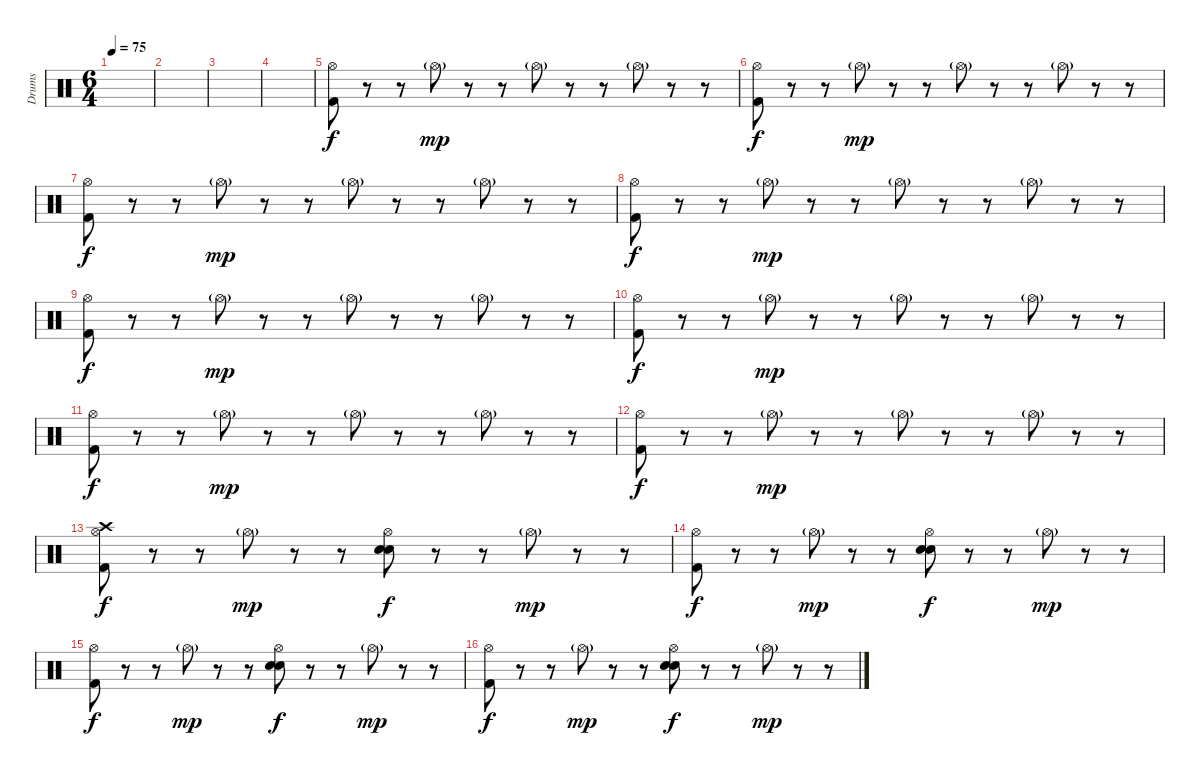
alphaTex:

\track ("Drums" "Drums") {instrument percussion}
\staff {score}
\articulation defaults
\ts (6 4)
\tempo 75
\clef neutral
\ks c
|
|
|
|
("Hi-Hat (open)" "Kick (hit) 2").8 r.8 r.8 "Hi-Hat (open)"{g}.8{dy mp} r.8 r.8 "Hi-Hat (open)"{g}.8 r.8 r.8 "Hi-Hat (open)"{g}.8 r.8 r.8 |
("Hi-Hat (open)" "Kick (hit) 2").8{dy f} r.8 r.8 "Hi-Hat (open)"{g}.8{dy mp} r.8 r.8 "Hi-Hat (open)"{g}.8 r.8 r.8 "Hi-Hat (open)"{g}.8 r.8 r.8 |
("Hi-Hat (open)" "Kick (hit) 2").8{dy f} r.8 r.8 "Hi-Hat (open)"{g}.8{dy mp} r.8 r.8 "Hi-Hat (open)"{g}.8 r.8 r.8 "Hi-Hat (open)"{g}.8 r.8 r.8 |
("Hi-Hat (open)" "Kick (hit) 2").8{dy f} r.8 r.8 "Hi-Hat (open)"{g}.8{dy mp} r.8 r.8 "Hi-Hat (open)"{g}.8 r.8 r.8 "Hi-Hat (open)"{g}.8 r.8 r.8 |
("Hi-Hat (open)" "Kick (hit) 2").8{dy f} r.8 r.8 "Hi-Hat (open)"{g}.8{dy mp} r.8 r.8 "Hi-Hat (open)"{g}.8 r.8 r.8 "Hi-Hat (open)"{g}.8 r.8 r.8 |
("Hi-Hat (open)" "Kick (hit) 2").8{dy f} r.8 r.8 "Hi-Hat (open)"{g}.8{dy mp} r.8 r.8 "Hi-Hat (open)"{g}.8 r.8 r.8 "Hi-Hat (open)"{g}.8 r.8 r.8 |
("Hi-Hat (open)" "Kick (hit) 2").8{dy f} r.8 r.8 "Hi-Hat (open)"{g}.8{dy mp} r.8 r.8 "Hi-Hat (open)"{g}.8 r.8 r.8 "Hi-Hat (open)"{g}.8 r.8 r.8 |
("Hi-Hat (open)" "Kick (hit) 2").8{dy f} r.8 r.8 "Hi-Hat (open)"{g}.8{dy mp} r.8 r.8 "Hi-Hat (open)"{g}.8 r.8 r.8 "Hi-Hat (open)"{g}.8 r.8 r.8 |
("Hi-Hat (open)" "Crash high (hit)" "Kick (hit) 2").8{dy f} r.8 r.8 "Hi-Hat (open)"{g}.8{dy mp} r.8 r.8 ("Hi-Hat (open)" "Electric Snare (hit)" "Snare (hit) 2").8{dy f} r.8 r.8 "Hi-Hat (open)"{g}.8{dy mp} r.8 r.8 |
("Hi-Hat (open)" "Kick (hit) 2").8{dy f} r.8 r.8 "Hi-Hat (open)"{g}.8{dy mp} r.8 r.8 ("Hi-Hat (open)" "Electric Snare (hit)" "Snare (hit) 2").8{dy f} r.8 r.8 "Hi-Hat (open)"{g}.8{dy mp} r.8 r.8 |
("Hi-Hat (open)" "Kick (hit) 2").8{dy f} r.8 r.8 "Hi-Hat (open)"{g}.8{dy mp} r.8 r.8 ("Hi-Hat (open)" "Electric Snare (hit)" "Snare (hit) 2").8{dy f} r.8 r.8 "Hi-Hat (open)"{g}.8{dy mp} r.8 r.8 |
("Hi-Hat (open)" "Kick (hit) 2").8{dy f} r.8 r.8 "Hi-Hat (open)"{g}.8{dy mp} r.8 r.8 ("Hi-Hat (open)" "Electric Snare (hit)" "Snare (hit) 2").8{dy f} r.8 r.8 "Hi-Hat (open)"{g}.8{dy mp} r.8 r.8
